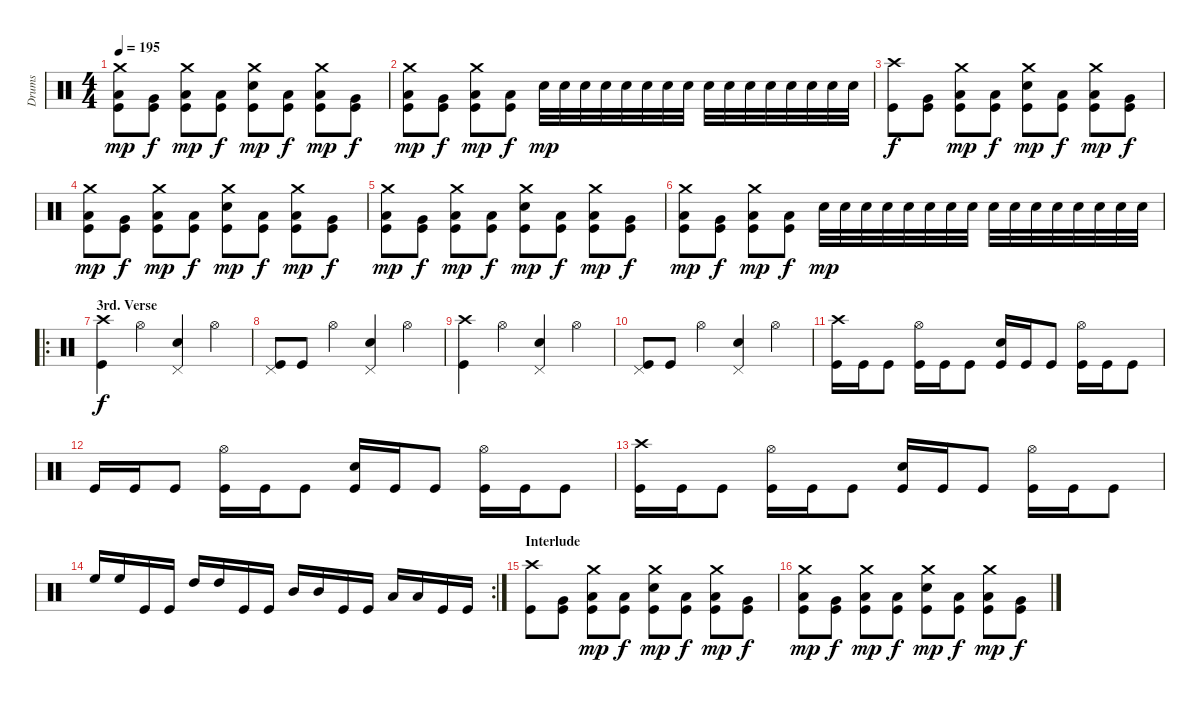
\track ("Drums" "Drums") {instrument percussion}
\staff {score}
\articulation defaults
\ts (4 4)
\tempo 195
\clef neutral
\ks c
("Crash medium (hit)" "Low Tom (hit)" "Kick (hit)").8{dy mp} ("Very Low Tom (hit)" "Kick (hit)").8{dy f} ("Crash medium (hit)" "Low Floor Tom (hit)" "Kick (hit)").8{dy mp} ("Low Tom (hit)" "Kick (hit)").8{dy f} ("Crash medium (hit)" "Electric Snare (hit)" "Kick (hit)").8{dy mp} ("Low Tom (hit)" "Kick (hit)").8{dy f} ("Crash medium (hit)" "Low Floor Tom (hit)" "Kick (hit)").8{dy mp} ("Very Low Tom (hit)" "Kick (hit)").8{dy f} |
("Crash medium (hit)" "Low Tom (hit)" "Kick (hit)").8{dy mp} ("Very Low Tom (hit)" "Kick (hit)").8{dy f} ("Crash medium (hit)" "Low Floor Tom (hit)" "Kick (hit)").8{dy mp} ("Low Tom (hit)" "Kick (hit)").8{dy f} "Electric Snare (hit)".32{dy mp} "Electric Snare (hit)".32 "Electric Snare (hit)".32 "Electric Snare (hit)".32 "Electric Snare (hit)".32 "Electric Snare (hit)".32 "Electric Snare (hit)".32 "Electric Snare (hit)".32 "Electric Snare (hit)".32 "Electric Snare (hit)".32 "Electric Snare (hit)".32 "Electric Snare (hit)".32 "Electric Snare (hit)".32 "Electric Snare (hit)".32 "Electric Snare (hit)".32 "Electric Snare (hit)".32 |
("Crash high (hit)" "Kick (hit)").8{dy f} ("Very Low Tom (hit)" "Kick (hit)").8 ("Crash medium (hit)" "Low Floor Tom (hit)" "Kick (hit)").8{dy mp} ("Low Tom (hit)" "Kick (hit)").8{dy f} ("Crash medium (hit)" "Electric Snare (hit)" "Kick (hit)").8{dy mp} ("Low Tom (hit)" "Kick (hit)").8{dy f} ("Crash medium (hit)" "Low Floor Tom (hit)" "Kick (hit)").8{dy mp} ("Very Low Tom (hit)" "Kick (hit)").8{dy f} |
("Crash medium (hit)" "Low Tom (hit)" "Kick (hit)").8{dy mp} ("Very Low Tom (hit)" "Kick (hit)").8{dy f} ("Crash medium (hit)" "Low Floor Tom (hit)" "Kick (hit)").8{dy mp} ("Low Tom (hit)" "Kick (hit)").8{dy f} ("Crash medium (hit)" "Electric Snare (hit)" "Kick (hit)").8{dy mp} ("Low Tom (hit)" "Kick (hit)").8{dy f} ("Crash medium (hit)" "Low Floor Tom (hit)" "Kick (hit)").8{dy mp} ("Very Low Tom (hit)" "Kick (hit)").8{dy f} |
("Crash medium (hit)" "Low Tom (hit)" "Kick (hit)").8{dy mp} ("Very Low Tom (hit)" "Kick (hit)").8{dy f} ("Crash medium (hit)" "Low Floor Tom (hit)" "Kick (hit)").8{dy mp} ("Low Tom (hit)" "Kick (hit)").8{dy f} ("Crash medium (hit)" "Electric Snare (hit)" "Kick (hit)").8{dy mp} ("Low Tom (hit)" "Kick (hit)").8{dy f} ("Crash medium (hit)" "Low Floor Tom (hit)" "Kick (hit)").8{dy mp} ("Very Low Tom (hit)" "Kick (hit)").8{dy f} |
("Crash medium (hit)" "Low Tom (hit)" "Kick (hit)").8{dy mp} ("Very Low Tom (hit)" "Kick (hit)").8{dy f} ("Crash medium (hit)" "Low Floor Tom (hit)" "Kick (hit)").8{dy mp} ("Low Tom (hit)" "Kick (hit)").8{dy f} "Electric Snare (hit)".32{dy mp} "Electric Snare (hit)".32 "Electric Snare (hit)".32 "Electric Snare (hit)".32 "Electric Snare (hit)".32 "Electric Snare (hit)".32 "Electric Snare (hit)".32 "Electric Snare (hit)".32 "Electric Snare (hit)".32 "Electric Snare (hit)".32 "Electric Snare (hit)".32 "Electric Snare (hit)".32 "Electric Snare (hit)".32 "Electric Snare (hit)".32 "Electric Snare (hit)".32 "Electric Snare (hit)".32 |
\ro
\section ("" "3rd. Verse")
("Crash high (hit)" "Kick (hit)").4{dy f} "Hi-Hat (open)".4 ("Pedal Hi-Hat (hit)" "Electric Snare (hit)").4 "Hi-Hat (open)".4 |
("Pedal Hi-Hat (hit)" "Kick (hit)").8 "Kick (hit)".8 "Hi-Hat (open)".4 ("Pedal Hi-Hat (hit)" "Electric Snare (hit)").4 "Hi-Hat (open)".4 |
("Crash high (hit)" "Kick (hit)").4 "Hi-Hat (open)".4 ("Pedal Hi-Hat (hit)" "Electric Snare (hit)").4 "Hi-Hat (open)".4 |
("Pedal Hi-Hat (hit)" "Kick (hit)").8 "Kick (hit)".8 "Hi-Hat (open)".4 ("Pedal Hi-Hat (hit)" "Electric Snare (hit)").4 "Hi-Hat (open)".4 |
("Crash high (hit)" "Kick (hit)").16 "Kick (hit)".16 "Kick (hit)".8 ("Hi-Hat (open)" "Kick (hit)").16 "Kick (hit)".16 "Kick (hit)".8 ("Electric Snare (hit)" "Kick (hit)").16 "Kick (hit)".16 "Kick (hit)".8 ("Hi-Hat (open)" "Kick (hit)").16 "Kick (hit)".16 "Kick (hit)".8 |
"Kick (hit)".16 "Kick (hit)".16 "Kick (hit)".8 ("Hi-Hat (open)" "Kick (hit)").16 "Kick (hit)".16 "Kick (hit)".8 ("Electric Snare (hit)" "Kick (hit)").16 "Kick (hit)".16 "Kick (hit)".8 ("Hi-Hat (open)" "Kick (hit)").16 "Kick (hit)".16 "Kick (hit)".8 |
("Crash high (hit)" "Kick (hit)").16 "Kick (hit)".16 "Kick (hit)".8 ("Hi-Hat (open)" "Kick (hit)").16 "Kick (hit)".16 "Kick (hit)".8 ("Electric Snare (hit)" "Kick (hit)").16 "Kick (hit)".16 "Kick (hit)".8 ("Hi-Hat (open)" "Kick (hit)").16 "Kick (hit)".16 "Kick (hit)".8 |
\rc 2 "High Floor Tom (hit)".16 "High Floor Tom (hit)".16 "Kick (hit)".16 "Kick (hit)".16 "High Tom (hit)".16 "High Tom (hit)".16 "Kick (hit)".16 "Kick (hit)".16 "Mid Tom (hit)".16 "Mid Tom (hit)".16 "Kick (hit)".16 "Kick (hit)".16 "Low Tom (hit)".16 "Low Tom (hit)".16 "Kick (hit)".16 "Kick (hit)".16
|
\section ("" "Interlude")
("Crash high (hit)" "Kick (hit)").8 ("Very Low Tom (hit)" "Kick (hit)").8 ("Crash medium (hit)" "Low Floor Tom (hit)" "Kick (hit)").8{dy mp} ("Low Tom (hit)" "Kick (hit)").8{dy f} ("Crash medium (hit)" "Electric Snare (hit)" "Kick (hit)").8{dy mp} ("Low Tom (hit)" "Kick (hit)").8{dy f} ("Crash medium (hit)" "Low Floor Tom (hit)" "Kick (hit)").8{dy mp} ("Very Low Tom (hit)" "Kick (hit)").8{dy f} |
("Crash medium (hit)" "Low Tom (hit)" "Kick (hit)").8{dy mp} ("Very Low Tom (hit)" "Kick (hit)").8{dy f} ("Crash medium (hit)" "Low Floor Tom (hit)" "Kick (hit)").8{dy mp} ("Low Tom (hit)" "Kick (hit)").8{dy f} ("Crash medium (hit)" "Electric Snare (hit)" "Kick (hit)").8{dy mp} ("Low Tom (hit)" "Kick (hit)").8{dy f} ("Crash medium (hit)" "Low Floor Tom (hit)" "Kick (hit)").8{dy mp} ("Very Low Tom (hit)" "Kick (hit)").8{dy f}
